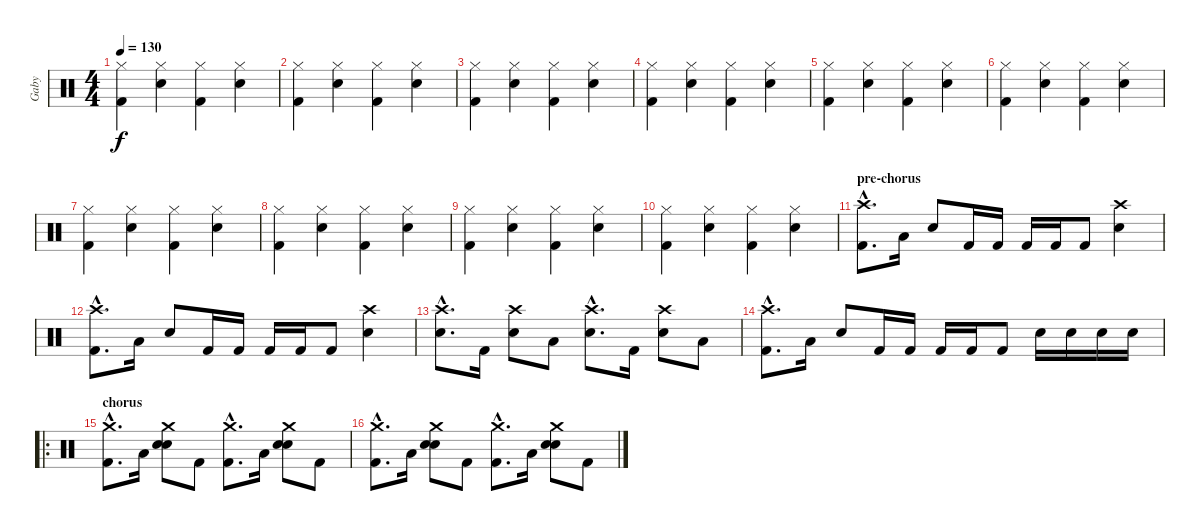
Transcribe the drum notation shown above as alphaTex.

\track ("Gaby" "Gaby") {instrument percussion}
\staff {score}
\articulation defaults
\ts (4 4)
\tempo 130
\clef neutral
\ks c
("Hi-Hat (closed)" "Kick (hit) 2").4{dy f} ("Hi-Hat (closed)" "Electric Snare (hit)").4 ("Hi-Hat (closed)" "Kick (hit) 2").4 ("Hi-Hat (closed)" "Electric Snare (hit)").4 |
("Hi-Hat (closed)" "Kick (hit) 2").4 ("Hi-Hat (closed)" "Electric Snare (hit)").4 ("Hi-Hat (closed)" "Kick (hit) 2").4 ("Hi-Hat (closed)" "Electric Snare (hit)").4 |
("Hi-Hat (closed)" "Kick (hit) 2").4 ("Hi-Hat (closed)" "Electric Snare (hit)").4 ("Hi-Hat (closed)" "Kick (hit) 2").4 ("Hi-Hat (closed)" "Electric Snare (hit)").4 |
("Hi-Hat (closed)" "Kick (hit) 2").4 ("Hi-Hat (closed)" "Electric Snare (hit)").4 ("Hi-Hat (closed)" "Kick (hit) 2").4 ("Hi-Hat (closed)" "Electric Snare (hit)").4 |
("Hi-Hat (closed)" "Kick (hit) 2").4 ("Hi-Hat (closed)" "Electric Snare (hit)").4 ("Hi-Hat (closed)" "Kick (hit) 2").4 ("Hi-Hat (closed)" "Electric Snare (hit)").4 |
("Hi-Hat (closed)" "Kick (hit) 2").4 ("Hi-Hat (closed)" "Electric Snare (hit)").4 ("Hi-Hat (closed)" "Kick (hit) 2").4 ("Hi-Hat (closed)" "Electric Snare (hit)").4 |
("Hi-Hat (closed)" "Kick (hit) 2").4 ("Hi-Hat (closed)" "Electric Snare (hit)").4 ("Hi-Hat (closed)" "Kick (hit) 2").4 ("Hi-Hat (closed)" "Electric Snare (hit)").4 |
("Hi-Hat (closed)" "Kick (hit) 2").4 ("Hi-Hat (closed)" "Electric Snare (hit)").4 ("Hi-Hat (closed)" "Kick (hit) 2").4 ("Hi-Hat (closed)" "Electric Snare (hit)").4 |
("Hi-Hat (closed)" "Kick (hit) 2").4 ("Hi-Hat (closed)" "Electric Snare (hit)").4 ("Hi-Hat (closed)" "Kick (hit) 2").4 ("Hi-Hat (closed)" "Electric Snare (hit)").4 |
("Hi-Hat (closed)" "Kick (hit) 2").4 ("Hi-Hat (closed)" "Electric Snare (hit)").4 ("Hi-Hat (closed)" "Kick (hit) 2").4 ("Hi-Hat (closed)" "Electric Snare (hit)").4 |
\section ("" "pre-chorus")
("Crash high (hit)"{hac} "Kick (hit) 2"{hac}).8{d} "Low Floor Tom (hit)".16 "Electric Snare (hit)".8 "Kick (hit) 2".16 "Kick (hit) 2".16 "Kick (hit) 2".16 "Kick (hit) 2".16 "Kick (hit) 2".8 ("Crash high (hit)" "Electric Snare (hit)").4 |
("Crash high (hit)"{hac} "Kick (hit) 2"{hac}).8{d} "Low Floor Tom (hit)".16 "Electric Snare (hit)".8 "Kick (hit) 2".16 "Kick (hit) 2".16 "Kick (hit) 2".16 "Kick (hit) 2".16 "Kick (hit) 2".8 ("Crash high (hit)" "Electric Snare (hit)").4 |
("Crash high (hit)"{hac} "Electric Snare (hit)"{hac}).8{d} "Kick (hit) 2".16 ("Crash high (hit)" "Electric Snare (hit)").8 "Low Floor Tom (hit)".8 ("Crash high (hit)"{hac} "Electric Snare (hit)"{hac}).8{d} "Kick (hit) 2".16 ("Crash high (hit)" "Electric Snare (hit)").8 "Low Floor Tom (hit)".8 |
("Crash high (hit)"{hac} "Kick (hit) 2"{hac}).8{d} "Low Floor Tom (hit)".16 "Electric Snare (hit)".8 "Kick (hit) 2".16 "Kick (hit) 2".16 "Kick (hit) 2".16 "Kick (hit) 2".16 "Kick (hit) 2".8 "Electric Snare (hit)".16 "Electric Snare (hit)".16 "Electric Snare (hit)".16 "Electric Snare (hit)".16 |
\ro
\section ("" "chorus")
("Crash medium (hit)"{hac} "Kick (hit) 2"{hac}).8{d} "Low Floor Tom (hit)".16 ("Crash medium (hit)" "Electric Snare (hit)" "Electric Snare (hit)").8 "Kick (hit) 2".8 ("Crash medium (hit)"{hac} "Kick (hit) 2"{hac}).8{d} "Low Floor Tom (hit)".16 ("Crash medium (hit)" "Electric Snare (hit)" "Electric Snare (hit)").8 "Kick (hit) 2".8 |
("Crash medium (hit)"{hac} "Kick (hit) 2"{hac}).8{d} "Low Floor Tom (hit)".16 ("Crash medium (hit)" "Electric Snare (hit)" "Electric Snare (hit)").8 "Kick (hit) 2".8 ("Crash medium (hit)"{hac} "Kick (hit) 2"{hac}).8{d} "Low Floor Tom (hit)".16 ("Crash medium (hit)" "Electric Snare (hit)" "Electric Snare (hit)").8 "Kick (hit) 2".8
